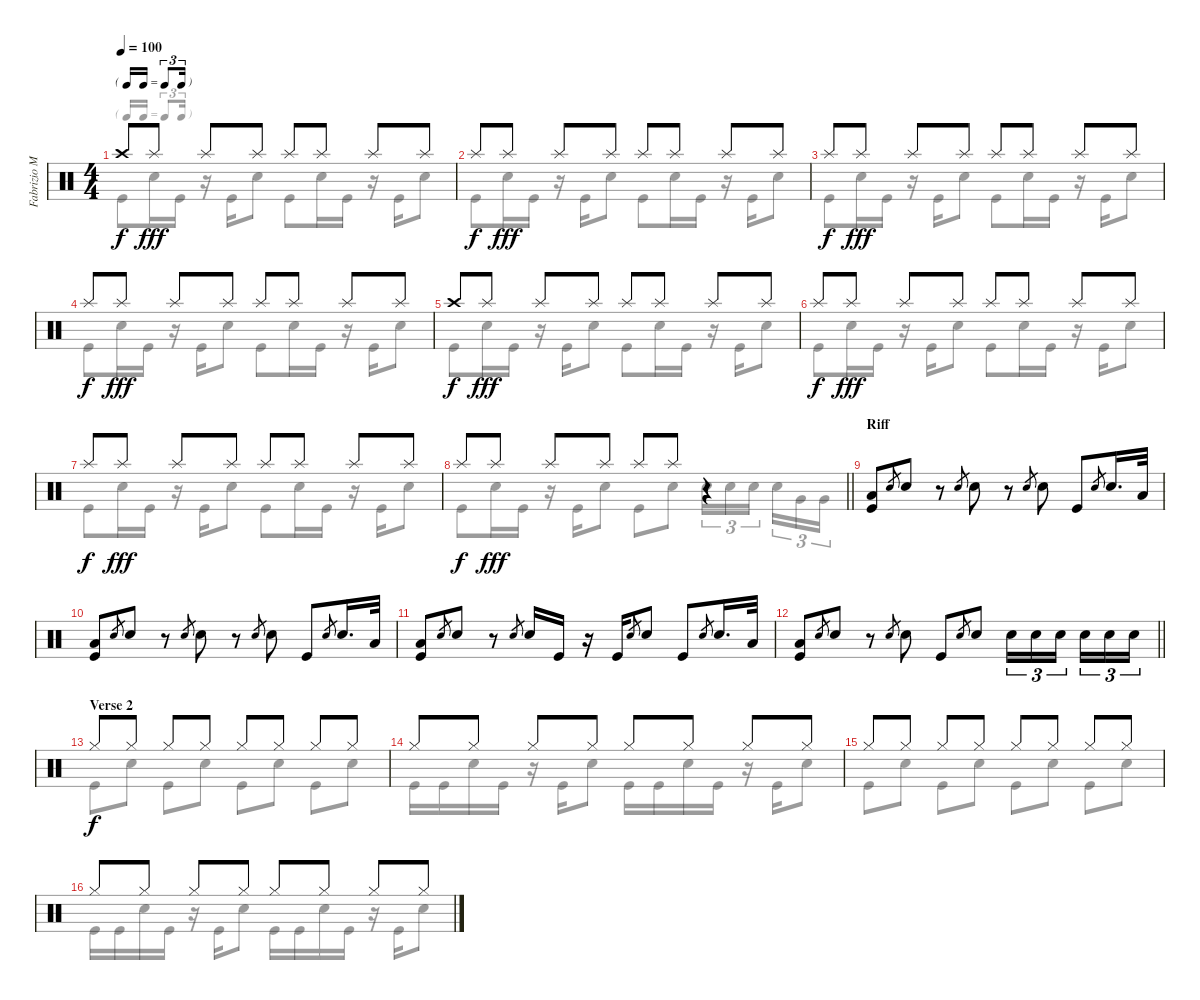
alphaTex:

\track ("Fabrizio Moretti (Drum)" "Fabrizio M") {instrument percussion}
\staff {score}
\articulation defaults
\voice
\ts (4 4)
\tf triplet16th
\tempo 100
\clef neutral
\ks c "Crash high (hit)".8{dy f} "Splash (hit)".8{dy fff} "Splash (hit)".8 "Splash (hit)".8 "Splash (hit)".8 "Splash (hit)".8 "Splash (hit)".8 "Splash (hit)".8
|
"Splash (hit)".8{dy f} "Splash (hit)".8{dy fff} "Splash (hit)".8 "Splash (hit)".8 "Splash (hit)".8 "Splash (hit)".8 "Splash (hit)".8 "Splash (hit)".8 |
"Splash (hit)".8{dy f} "Splash (hit)".8{dy fff} "Splash (hit)".8 "Splash (hit)".8 "Splash (hit)".8 "Splash (hit)".8 "Splash (hit)".8 "Splash (hit)".8 |
"Splash (hit)".8{dy f} "Splash (hit)".8{dy fff} "Splash (hit)".8 "Splash (hit)".8 "Splash (hit)".8 "Splash (hit)".8 "Splash (hit)".8 "Splash (hit)".8 |
"Crash high (hit)".8{dy f} "Splash (hit)".8{dy fff} "Splash (hit)".8 "Splash (hit)".8 "Splash (hit)".8 "Splash (hit)".8 "Splash (hit)".8 "Splash (hit)".8 |
"Splash (hit)".8{dy f} "Splash (hit)".8{dy fff} "Splash (hit)".8 "Splash (hit)".8 "Splash (hit)".8 "Splash (hit)".8 "Splash (hit)".8 "Splash (hit)".8 |
"Splash (hit)".8{dy f} "Splash (hit)".8{dy fff} "Splash (hit)".8 "Splash (hit)".8 "Splash (hit)".8 "Splash (hit)".8 "Splash (hit)".8 "Splash (hit)".8 |
\barLineRight lightlight "Splash (hit)".8{dy f} "Splash (hit)".8{dy fff} "Splash (hit)".8 "Splash (hit)".8 "Splash (hit)".8 "Splash (hit)".8
r.4 |
\section ("" "Riff")
("Low Floor Tom (hit)" "Kick (hit)").8 "Snare (hit) 2".8{gr} "Snare (hit) 2".8 r.8 "Snare (hit) 2".8{gr} "Snare (hit) 2".8 r.8 "Snare (hit) 2".8{gr} "Snare (hit) 2".8 "Kick (hit)".8 "Snare (hit) 2".8{gr} "Snare (hit) 2".16{d} "Low Tom (hit)".32 |
("Low Floor Tom (hit)" "Kick (hit)").8 "Snare (hit) 2".8{gr} "Snare (hit) 2".8 r.8 "Snare (hit) 2".8{gr} "Snare (hit) 2".8 r.8 "Snare (hit) 2".8{gr} "Snare (hit) 2".8 "Kick (hit)".8 "Snare (hit) 2".8{gr} "Snare (hit) 2".16{d} "Low Tom (hit)".32 |
("Low Floor Tom (hit)" "Kick (hit)").8 "Snare (hit) 2".8{gr} "Snare (hit) 2".8 r.8 "Snare (hit) 2".8{gr} "Snare (hit) 2".16 "Kick (hit)".16 r.16 "Kick (hit)".16 "Snare (hit) 2".8{gr} "Snare (hit) 2".8 "Kick (hit)".8 "Snare (hit) 2".8{gr} "Snare (hit) 2".16{d} "Low Tom (hit)".32 |
\barLineRight lightlight
("Low Floor Tom (hit)" "Kick (hit)").8 "Snare (hit) 2".8{gr} "Snare (hit) 2".8 r.8 "Snare (hit) 2".8{gr} "Snare (hit) 2".8 "Kick (hit)".8 "Snare (hit) 2".8{gr} "Snare (hit) 2".8 "Snare (hit) 2".16{tu (3 2)} "Snare (hit) 2".16{tu (3 2)} "Snare (hit) 2".16{tu (3 2) beam splitsecondary} "Snare (hit) 2".16{tu (3 2)} "Snare (hit) 2".16{tu (3 2)} "Snare (hit) 2".16{tu (3 2)} |
\section ("" "Verse 2")
"Hi-Hat (closed)".8{dy f} "Hi-Hat (closed)".8 "Hi-Hat (closed)".8 "Hi-Hat (closed)".8 "Hi-Hat (closed)".8 "Hi-Hat (closed)".8 "Hi-Hat (closed)".8 "Hi-Hat (closed)".8 |
"Hi-Hat (closed)".8 "Hi-Hat (closed)".8 "Hi-Hat (closed)".8 "Hi-Hat (closed)".8 "Hi-Hat (closed)".8 "Hi-Hat (closed)".8 "Hi-Hat (closed)".8 "Hi-Hat (closed)".8 |
"Hi-Hat (closed)".8 "Hi-Hat (closed)".8 "Hi-Hat (closed)".8 "Hi-Hat (closed)".8 "Hi-Hat (closed)".8 "Hi-Hat (closed)".8 "Hi-Hat (closed)".8 "Hi-Hat (closed)".8 |
"Hi-Hat (closed)".8 "Hi-Hat (closed)".8 "Hi-Hat (closed)".8 "Hi-Hat (closed)".8 "Hi-Hat (closed)".8 "Hi-Hat (closed)".8 "Hi-Hat (closed)".8 "Hi-Hat (closed)".8
\voice
\clef neutral
\ottava regular
\simile none
\ks c "Kick (hit)".8{dy f} "Snare (hit) 2".16 "Kick (hit)".16
r.16 "Kick (hit)".16 "Snare (hit) 2".8 "Kick (hit)".8 "Snare (hit) 2".16 "Kick (hit)".16 r.16 "Kick (hit)".16 "Snare (hit) 2".8 |
"Kick (hit)".8 "Snare (hit) 2".16 "Kick (hit)".16 r.16 "Kick (hit)".16 "Snare (hit) 2".8 "Kick (hit)".8 "Snare (hit) 2".16 "Kick (hit)".16 r.16 "Kick (hit)".16 "Snare (hit) 2".8 |
"Kick (hit)".8 "Snare (hit) 2".16 "Kick (hit)".16 r.16 "Kick (hit)".16 "Snare (hit) 2".8 "Kick (hit)".8 "Snare (hit) 2".16 "Kick (hit)".16 r.16 "Kick (hit)".16 "Snare (hit) 2".8 |
"Kick (hit)".8 "Snare (hit) 2".16 "Kick (hit)".16 r.16 "Kick (hit)".16 "Snare (hit) 2".8 "Kick (hit)".8 "Snare (hit) 2".16 "Kick (hit)".16 r.16 "Kick (hit)".16 "Snare (hit) 2".8 |
"Kick (hit)".8 "Snare (hit) 2".16 "Kick (hit)".16 r.16 "Kick (hit)".16 "Snare (hit) 2".8 "Kick (hit)".8 "Snare (hit) 2".16 "Kick (hit)".16 r.16 "Kick (hit)".16 "Snare (hit) 2".8 |
"Kick (hit)".8 "Snare (hit) 2".16 "Kick (hit)".16 r.16 "Kick (hit)".16 "Snare (hit) 2".8 "Kick (hit)".8 "Snare (hit) 2".16 "Kick (hit)".16 r.16 "Kick (hit)".16 "Snare (hit) 2".8 |
"Kick (hit)".8 "Snare (hit) 2".16 "Kick (hit)".16 r.16 "Kick (hit)".16 "Snare (hit) 2".8 "Kick (hit)".8 "Snare (hit) 2".16 "Kick (hit)".16 r.16 "Kick (hit)".16 "Snare (hit) 2".8 |
\barLineRight lightlight "Kick (hit)".8 "Snare (hit) 2".16 "Kick (hit)".16
r.16 "Kick (hit)".16 "Snare (hit) 2".8 "Kick (hit)".8 "Snare (hit) 2".8 "Snare (hit) 2".16{tu (3 2)} "Snare (hit) 2".16{tu (3 2)} "Snare (hit) 2".16{tu (3 2) beam splitsecondary} "Snare (hit) 2".16{tu (3 2)} "Very Low Tom (hit)".16{tu (3 2)} "Very Low Tom (hit)".16{tu (3 2)} |
|
|
|
\barLineRight lightlight
|
"Kick (hit)".8 "Snare (hit) 2".8 "Kick (hit)".8 "Snare (hit) 2".8 "Kick (hit)".8 "Snare (hit) 2".8 "Kick (hit)".8 "Snare (hit) 2".8 |
"Kick (hit)".16 "Kick (hit)".16 "Snare (hit) 2".16 "Kick (hit)".16 r.16 "Kick (hit)".16 "Snare (hit) 2".8 "Kick (hit)".16 "Kick (hit)".16 "Snare (hit) 2".16 "Kick (hit)".16 r.16 "Kick (hit)".16 "Snare (hit) 2".8 |
"Kick (hit)".8 "Snare (hit) 2".8 "Kick (hit)".8 "Snare (hit) 2".8 "Kick (hit)".8 "Snare (hit) 2".8 "Kick (hit)".8 "Snare (hit) 2".8 |
"Kick (hit)".16 "Kick (hit)".16 "Snare (hit) 2".16 "Kick (hit)".16 r.16 "Kick (hit)".16 "Snare (hit) 2".8 "Kick (hit)".16 "Kick (hit)".16 "Snare (hit) 2".16 "Kick (hit)".16 r.16 "Kick (hit)".16 "Snare (hit) 2".8
